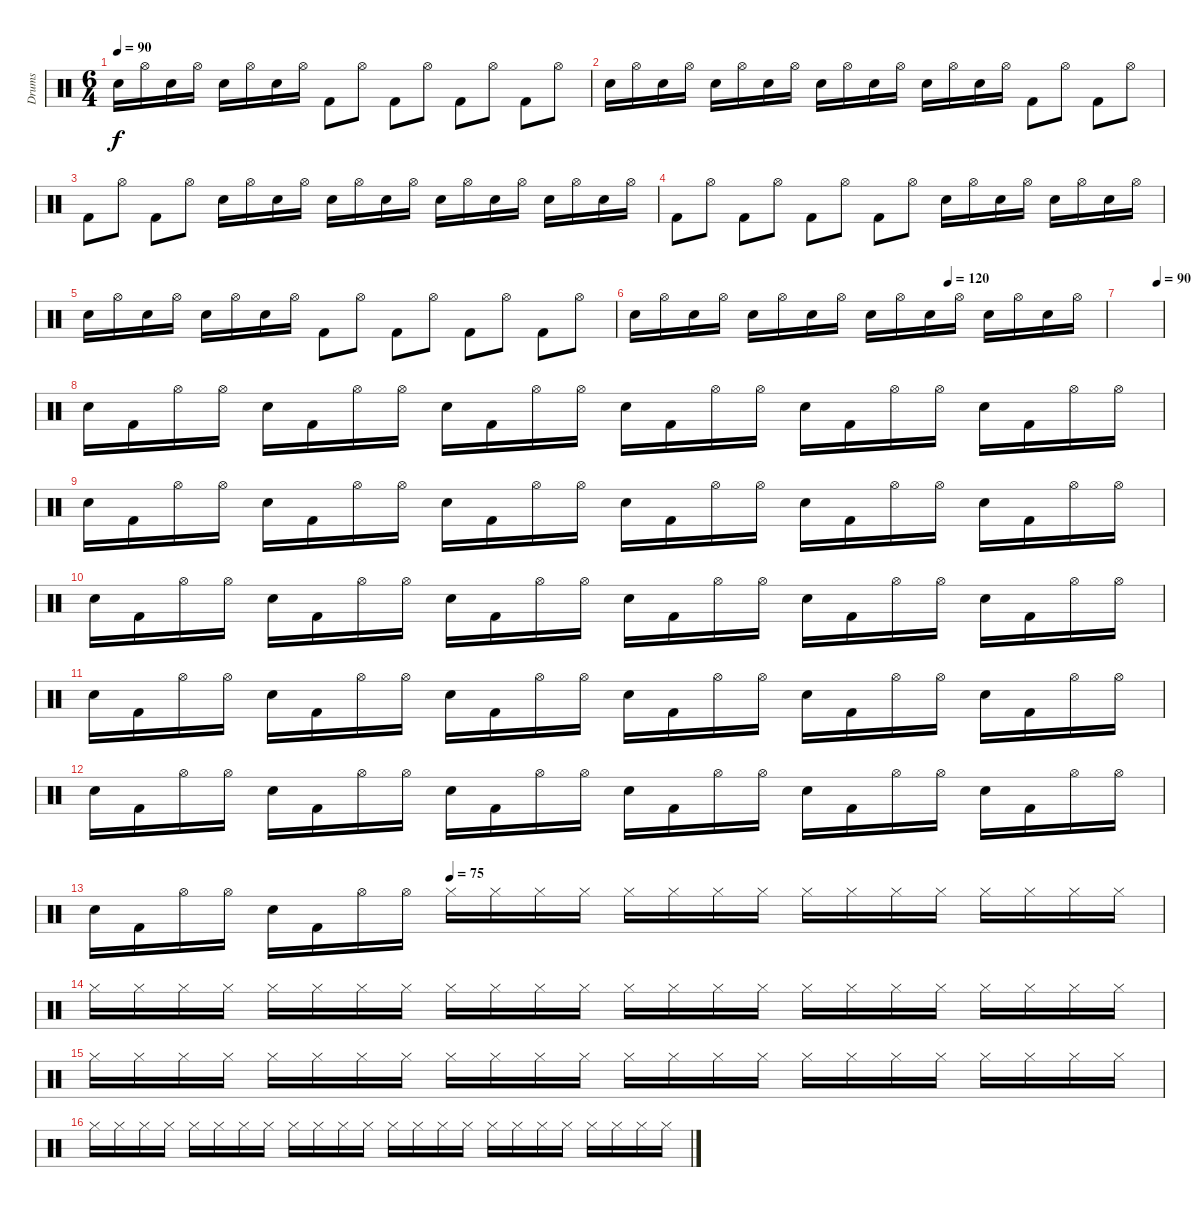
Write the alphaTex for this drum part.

\track ("Drums" "Drums") {instrument percussion}
\staff {score}
\articulation defaults
\ts (6 4)
\tempo 90
\clef neutral
\ks c "Snare (hit) 2".16{dy f} "Hi-Hat (open)".16 "Snare (hit) 2".16 "Hi-Hat (open)".16 "Snare (hit) 2".16 "Hi-Hat (open)".16 "Snare (hit) 2".16 "Hi-Hat (open)".16 "Kick (hit) 2".8 "Hi-Hat (open)".8 "Kick (hit) 2".8 "Hi-Hat (open)".8 "Kick (hit) 2".8 "Hi-Hat (open)".8 "Kick (hit) 2".8 "Hi-Hat (open)".8
|
"Snare (hit) 2".16 "Hi-Hat (open)".16 "Snare (hit) 2".16 "Hi-Hat (open)".16 "Snare (hit) 2".16 "Hi-Hat (open)".16 "Snare (hit) 2".16 "Hi-Hat (open)".16 "Snare (hit) 2".16 "Hi-Hat (open)".16 "Snare (hit) 2".16 "Hi-Hat (open)".16 "Snare (hit) 2".16 "Hi-Hat (open)".16 "Snare (hit) 2".16 "Hi-Hat (open)".16 "Kick (hit) 2".8 "Hi-Hat (open)".8 "Kick (hit) 2".8 "Hi-Hat (open)".8 |
"Kick (hit) 2".8 "Hi-Hat (open)".8 "Kick (hit) 2".8 "Hi-Hat (open)".8 "Snare (hit) 2".16 "Hi-Hat (open)".16 "Snare (hit) 2".16 "Hi-Hat (open)".16 "Snare (hit) 2".16 "Hi-Hat (open)".16 "Snare (hit) 2".16 "Hi-Hat (open)".16 "Snare (hit) 2".16 "Hi-Hat (open)".16 "Snare (hit) 2".16 "Hi-Hat (open)".16 "Snare (hit) 2".16 "Hi-Hat (open)".16 "Snare (hit) 2".16 "Hi-Hat (open)".16 |
"Kick (hit) 2".8 "Hi-Hat (open)".8 "Kick (hit) 2".8 "Hi-Hat (open)".8 "Kick (hit) 2".8 "Hi-Hat (open)".8 "Kick (hit) 2".8 "Hi-Hat (open)".8 "Snare (hit) 2".16 "Hi-Hat (open)".16 "Snare (hit) 2".16 "Hi-Hat (open)".16 "Snare (hit) 2".16 "Hi-Hat (open)".16 "Snare (hit) 2".16 "Hi-Hat (open)".16 |
"Snare (hit) 2".16 "Hi-Hat (open)".16 "Snare (hit) 2".16 "Hi-Hat (open)".16 "Snare (hit) 2".16 "Hi-Hat (open)".16 "Snare (hit) 2".16 "Hi-Hat (open)".16 "Kick (hit) 2".8 "Hi-Hat (open)".8 "Kick (hit) 2".8 "Hi-Hat (open)".8 "Kick (hit) 2".8 "Hi-Hat (open)".8 "Kick (hit) 2".8 "Hi-Hat (open)".8 |
\tempo (120 0.6666666666666666)
"Snare (hit) 2".16 "Hi-Hat (open)".16 "Snare (hit) 2".16 "Hi-Hat (open)".16 "Snare (hit) 2".16 "Hi-Hat (open)".16 "Snare (hit) 2".16 "Hi-Hat (open)".16 "Snare (hit) 2".16 "Hi-Hat (open)".16 "Snare (hit) 2".16 "Hi-Hat (open)".16 "Snare (hit) 2".16 "Hi-Hat (open)".16 "Snare (hit) 2".16 "Hi-Hat (open)".16 |
\tempo (90 0.875)
|
"Snare (hit) 2".16 "Kick (hit) 2".16 "Hi-Hat (open)".16 "Hi-Hat (open)".16 "Snare (hit) 2".16 "Kick (hit) 2".16 "Hi-Hat (open)".16 "Hi-Hat (open)".16 "Snare (hit) 2".16 "Kick (hit) 2".16 "Hi-Hat (open)".16 "Hi-Hat (open)".16 "Snare (hit) 2".16 "Kick (hit) 2".16 "Hi-Hat (open)".16 "Hi-Hat (open)".16 "Snare (hit) 2".16 "Kick (hit) 2".16 "Hi-Hat (open)".16 "Hi-Hat (open)".16 "Snare (hit) 2".16 "Kick (hit) 2".16 "Hi-Hat (open)".16 "Hi-Hat (open)".16 |
"Snare (hit) 2".16 "Kick (hit) 2".16 "Hi-Hat (open)".16 "Hi-Hat (open)".16 "Snare (hit) 2".16 "Kick (hit) 2".16 "Hi-Hat (open)".16 "Hi-Hat (open)".16 "Snare (hit) 2".16 "Kick (hit) 2".16 "Hi-Hat (open)".16 "Hi-Hat (open)".16 "Snare (hit) 2".16 "Kick (hit) 2".16 "Hi-Hat (open)".16 "Hi-Hat (open)".16 "Snare (hit) 2".16 "Kick (hit) 2".16 "Hi-Hat (open)".16 "Hi-Hat (open)".16 "Snare (hit) 2".16 "Kick (hit) 2".16 "Hi-Hat (open)".16 "Hi-Hat (open)".16 |
"Snare (hit) 2".16 "Kick (hit) 2".16 "Hi-Hat (open)".16 "Hi-Hat (open)".16 "Snare (hit) 2".16 "Kick (hit) 2".16 "Hi-Hat (open)".16 "Hi-Hat (open)".16 "Snare (hit) 2".16 "Kick (hit) 2".16 "Hi-Hat (open)".16 "Hi-Hat (open)".16 "Snare (hit) 2".16 "Kick (hit) 2".16 "Hi-Hat (open)".16 "Hi-Hat (open)".16 "Snare (hit) 2".16 "Kick (hit) 2".16 "Hi-Hat (open)".16 "Hi-Hat (open)".16 "Snare (hit) 2".16 "Kick (hit) 2".16 "Hi-Hat (open)".16 "Hi-Hat (open)".16 |
"Snare (hit) 2".16 "Kick (hit) 2".16 "Hi-Hat (open)".16 "Hi-Hat (open)".16 "Snare (hit) 2".16 "Kick (hit) 2".16 "Hi-Hat (open)".16 "Hi-Hat (open)".16 "Snare (hit) 2".16 "Kick (hit) 2".16 "Hi-Hat (open)".16 "Hi-Hat (open)".16 "Snare (hit) 2".16 "Kick (hit) 2".16 "Hi-Hat (open)".16 "Hi-Hat (open)".16 "Snare (hit) 2".16 "Kick (hit) 2".16 "Hi-Hat (open)".16 "Hi-Hat (open)".16 "Snare (hit) 2".16 "Kick (hit) 2".16 "Hi-Hat (open)".16 "Hi-Hat (open)".16 |
"Snare (hit) 2".16 "Kick (hit) 2".16 "Hi-Hat (open)".16 "Hi-Hat (open)".16 "Snare (hit) 2".16 "Kick (hit) 2".16 "Hi-Hat (open)".16 "Hi-Hat (open)".16 "Snare (hit) 2".16 "Kick (hit) 2".16 "Hi-Hat (open)".16 "Hi-Hat (open)".16 "Snare (hit) 2".16 "Kick (hit) 2".16 "Hi-Hat (open)".16 "Hi-Hat (open)".16 "Snare (hit) 2".16 "Kick (hit) 2".16 "Hi-Hat (open)".16 "Hi-Hat (open)".16 "Snare (hit) 2".16 "Kick (hit) 2".16 "Hi-Hat (open)".16 "Hi-Hat (open)".16 |
\tempo (75 0.3333333333333333)
"Snare (hit) 2".16 "Kick (hit) 2".16 "Hi-Hat (open)".16 "Hi-Hat (open)".16 "Snare (hit) 2".16 "Kick (hit) 2".16 "Hi-Hat (open)".16 "Hi-Hat (open)".16 "Hi-Hat (closed)".16 "Hi-Hat (closed)".16 "Hi-Hat (closed)".16 "Hi-Hat (closed)".16 "Hi-Hat (closed)".16 "Hi-Hat (closed)".16 "Hi-Hat (closed)".16 "Hi-Hat (closed)".16 "Hi-Hat (closed)".16 "Hi-Hat (closed)".16 "Hi-Hat (closed)".16 "Hi-Hat (closed)".16 "Hi-Hat (closed)".16 "Hi-Hat (closed)".16 "Hi-Hat (closed)".16 "Hi-Hat (closed)".16 |
"Hi-Hat (closed)".16 "Hi-Hat (closed)".16 "Hi-Hat (closed)".16 "Hi-Hat (closed)".16 "Hi-Hat (closed)".16 "Hi-Hat (closed)".16 "Hi-Hat (closed)".16 "Hi-Hat (closed)".16 "Hi-Hat (closed)".16 "Hi-Hat (closed)".16 "Hi-Hat (closed)".16 "Hi-Hat (closed)".16 "Hi-Hat (closed)".16 "Hi-Hat (closed)".16 "Hi-Hat (closed)".16 "Hi-Hat (closed)".16 "Hi-Hat (closed)".16 "Hi-Hat (closed)".16 "Hi-Hat (closed)".16 "Hi-Hat (closed)".16 "Hi-Hat (closed)".16 "Hi-Hat (closed)".16 "Hi-Hat (closed)".16 "Hi-Hat (closed)".16 |
"Hi-Hat (closed)".16 "Hi-Hat (closed)".16 "Hi-Hat (closed)".16 "Hi-Hat (closed)".16 "Hi-Hat (closed)".16 "Hi-Hat (closed)".16 "Hi-Hat (closed)".16 "Hi-Hat (closed)".16 "Hi-Hat (closed)".16 "Hi-Hat (closed)".16 "Hi-Hat (closed)".16 "Hi-Hat (closed)".16 "Hi-Hat (closed)".16 "Hi-Hat (closed)".16 "Hi-Hat (closed)".16 "Hi-Hat (closed)".16 "Hi-Hat (closed)".16 "Hi-Hat (closed)".16 "Hi-Hat (closed)".16 "Hi-Hat (closed)".16 "Hi-Hat (closed)".16 "Hi-Hat (closed)".16 "Hi-Hat (closed)".16 "Hi-Hat (closed)".16 |
"Hi-Hat (closed)".16 "Hi-Hat (closed)".16 "Hi-Hat (closed)".16 "Hi-Hat (closed)".16 "Hi-Hat (closed)".16 "Hi-Hat (closed)".16 "Hi-Hat (closed)".16 "Hi-Hat (closed)".16 "Hi-Hat (closed)".16 "Hi-Hat (closed)".16 "Hi-Hat (closed)".16 "Hi-Hat (closed)".16 "Hi-Hat (closed)".16 "Hi-Hat (closed)".16 "Hi-Hat (closed)".16 "Hi-Hat (closed)".16 "Hi-Hat (closed)".16 "Hi-Hat (closed)".16 "Hi-Hat (closed)".16 "Hi-Hat (closed)".16 "Hi-Hat (closed)".16 "Hi-Hat (closed)".16 "Hi-Hat (closed)".16 "Hi-Hat (closed)".16
